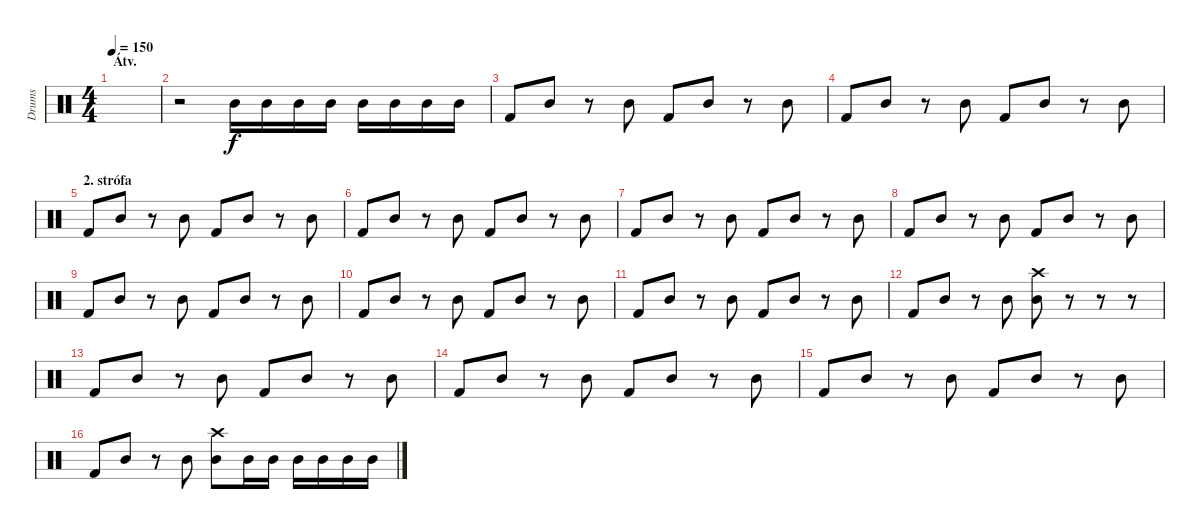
\track ("Drums" "Drums") {instrument percussion}
\staff {score}
\articulation defaults
\ts (4 4)
\section ("" "Átv.")
\tempo 150
\clef neutral
\ks c
|
r.2 "Mid Tom (hit)".16 "Mid Tom (hit)".16 "Mid Tom (hit)".16 "Mid Tom (hit)".16 "Mid Tom (hit)".16 "Mid Tom (hit)".16 "Mid Tom (hit)".16 "Mid Tom (hit)".16 |
"Kick (hit) 2".8 "Mid Tom (hit)".8 r.8 "Mid Tom (hit)".8 "Kick (hit) 2".8 "Mid Tom (hit)".8 r.8 "Mid Tom (hit)".8 |
"Kick (hit) 2".8 "Mid Tom (hit)".8 r.8 "Mid Tom (hit)".8 "Kick (hit) 2".8 "Mid Tom (hit)".8 r.8 "Mid Tom (hit)".8 |
\section ("" "2. strófa")
"Kick (hit) 2".8 "Mid Tom (hit)".8 r.8 "Mid Tom (hit)".8 "Kick (hit) 2".8 "Mid Tom (hit)".8 r.8 "Mid Tom (hit)".8 |
"Kick (hit) 2".8 "Mid Tom (hit)".8 r.8 "Mid Tom (hit)".8 "Kick (hit) 2".8 "Mid Tom (hit)".8 r.8 "Mid Tom (hit)".8 |
"Kick (hit) 2".8 "Mid Tom (hit)".8 r.8 "Mid Tom (hit)".8 "Kick (hit) 2".8 "Mid Tom (hit)".8 r.8 "Mid Tom (hit)".8 |
"Kick (hit) 2".8 "Mid Tom (hit)".8 r.8 "Mid Tom (hit)".8 "Kick (hit) 2".8 "Mid Tom (hit)".8 r.8 "Mid Tom (hit)".8 |
"Kick (hit) 2".8 "Mid Tom (hit)".8 r.8 "Mid Tom (hit)".8 "Kick (hit) 2".8 "Mid Tom (hit)".8 r.8 "Mid Tom (hit)".8 |
"Kick (hit) 2".8 "Mid Tom (hit)".8 r.8 "Mid Tom (hit)".8 "Kick (hit) 2".8 "Mid Tom (hit)".8 r.8 "Mid Tom (hit)".8 |
"Kick (hit) 2".8 "Mid Tom (hit)".8 r.8 "Mid Tom (hit)".8 "Kick (hit) 2".8 "Mid Tom (hit)".8 r.8 "Mid Tom (hit)".8 |
"Kick (hit) 2".8 "Mid Tom (hit)".8 r.8 "Mid Tom (hit)".8 ("Mid Tom (hit)" "Crash high (hit)").8 r.8 r.8 r.8 |
"Kick (hit) 2".8 "Mid Tom (hit)".8 r.8 "Mid Tom (hit)".8 "Kick (hit) 2".8 "Mid Tom (hit)".8 r.8 "Mid Tom (hit)".8 |
"Kick (hit) 2".8 "Mid Tom (hit)".8 r.8 "Mid Tom (hit)".8 "Kick (hit) 2".8 "Mid Tom (hit)".8 r.8 "Mid Tom (hit)".8 |
"Kick (hit) 2".8 "Mid Tom (hit)".8 r.8 "Mid Tom (hit)".8 "Kick (hit) 2".8 "Mid Tom (hit)".8 r.8 "Mid Tom (hit)".8 |
"Kick (hit) 2".8 "Mid Tom (hit)".8 r.8 "Mid Tom (hit)".8 ("Mid Tom (hit)" "Crash high (hit)").8 "Mid Tom (hit)".16 "Mid Tom (hit)".16 "Mid Tom (hit)".16 "Mid Tom (hit)".16 "Mid Tom (hit)".16 "Mid Tom (hit)".16
